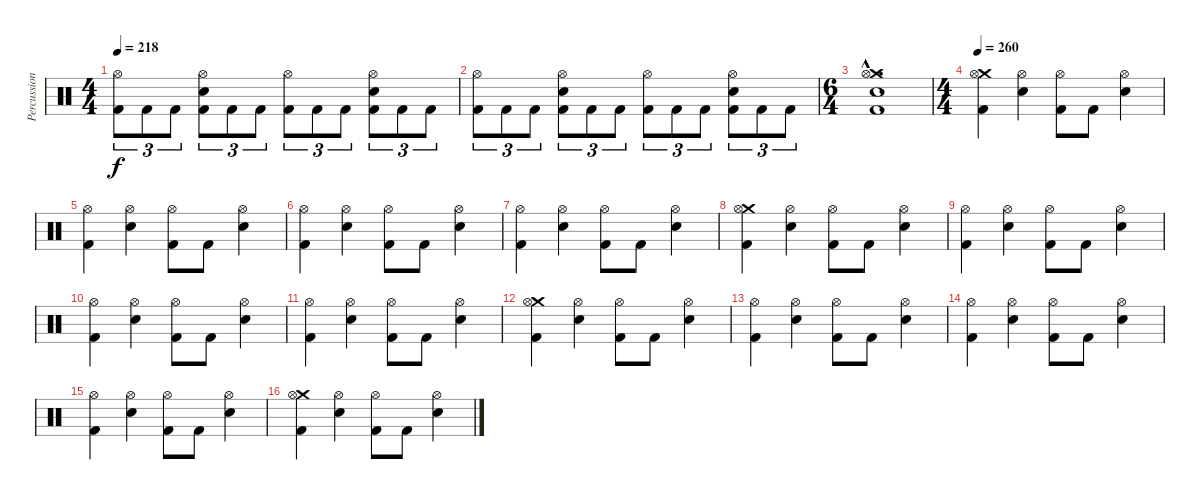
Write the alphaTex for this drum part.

\track ("Percussion" "Percussion") {instrument percussion}
\staff {score}
\articulation defaults
\ts (4 4)
\tempo 218
\clef neutral
\ks c
("Hi-Hat (open)" "Kick (hit) 2").8{tu (3 2) dy f} "Kick (hit) 2".8{tu (3 2)} "Kick (hit) 2".8{tu (3 2)} ("Hi-Hat (open)" "Electric Snare (hit)" "Kick (hit) 2").8{tu (3 2)} "Kick (hit) 2".8{tu (3 2)} "Kick (hit) 2".8{tu (3 2)} ("Hi-Hat (open)" "Kick (hit) 2").8{tu (3 2)} "Kick (hit) 2".8{tu (3 2)} "Kick (hit) 2".8{tu (3 2)} ("Hi-Hat (open)" "Electric Snare (hit)" "Kick (hit) 2").8{tu (3 2)} "Kick (hit) 2".8{tu (3 2)} "Kick (hit) 2".8{tu (3 2)} |
("Hi-Hat (open)" "Kick (hit) 2").8{tu (3 2)} "Kick (hit) 2".8{tu (3 2)} "Kick (hit) 2".8{tu (3 2)} ("Hi-Hat (open)" "Electric Snare (hit)" "Kick (hit) 2").8{tu (3 2)} "Kick (hit) 2".8{tu (3 2)} "Kick (hit) 2".8{tu (3 2)} ("Hi-Hat (open)" "Kick (hit) 2").8{tu (3 2)} "Kick (hit) 2".8{tu (3 2)} "Kick (hit) 2".8{tu (3 2)} ("Hi-Hat (open)" "Electric Snare (hit)" "Kick (hit) 2").8{tu (3 2)} "Kick (hit) 2".8{tu (3 2)} "Kick (hit) 2".8{tu (3 2)} |
\ts (6 4)
("Crash medium (hit)"{hac} "Hi-Hat (open)"{hac} "Electric Snare (hit)"{hac} "Kick (hit) 2"{hac}).1{d} |
\ts (4 4)
\tempo 260
("Crash medium (hit)" "Hi-Hat (open)" "Kick (hit) 2").4 ("Hi-Hat (open)" "Electric Snare (hit)").4 ("Hi-Hat (open)" "Kick (hit) 2").8 "Kick (hit) 2".8 ("Hi-Hat (open)" "Electric Snare (hit)").4 |
("Hi-Hat (open)" "Kick (hit) 2").4 ("Hi-Hat (open)" "Electric Snare (hit)").4 ("Hi-Hat (open)" "Kick (hit) 2").8 "Kick (hit) 2".8 ("Hi-Hat (open)" "Electric Snare (hit)").4 |
("Hi-Hat (open)" "Kick (hit) 2").4 ("Hi-Hat (open)" "Electric Snare (hit)").4 ("Hi-Hat (open)" "Kick (hit) 2").8 "Kick (hit) 2".8 ("Hi-Hat (open)" "Electric Snare (hit)").4 |
("Hi-Hat (open)" "Kick (hit) 2").4 ("Hi-Hat (open)" "Electric Snare (hit)").4 ("Hi-Hat (open)" "Kick (hit) 2").8 "Kick (hit) 2".8 ("Hi-Hat (open)" "Electric Snare (hit)").4 |
("Crash medium (hit)" "Hi-Hat (open)" "Kick (hit) 2").4 ("Hi-Hat (open)" "Electric Snare (hit)").4 ("Hi-Hat (open)" "Kick (hit) 2").8 "Kick (hit) 2".8 ("Hi-Hat (open)" "Electric Snare (hit)").4 |
("Hi-Hat (open)" "Kick (hit) 2").4 ("Hi-Hat (open)" "Electric Snare (hit)").4 ("Hi-Hat (open)" "Kick (hit) 2").8 "Kick (hit) 2".8 ("Hi-Hat (open)" "Electric Snare (hit)").4 |
("Hi-Hat (open)" "Kick (hit) 2").4 ("Hi-Hat (open)" "Electric Snare (hit)").4 ("Hi-Hat (open)" "Kick (hit) 2").8 "Kick (hit) 2".8 ("Hi-Hat (open)" "Electric Snare (hit)").4 |
("Hi-Hat (open)" "Kick (hit) 2").4 ("Hi-Hat (open)" "Electric Snare (hit)").4 ("Hi-Hat (open)" "Kick (hit) 2").8 "Kick (hit) 2".8 ("Hi-Hat (open)" "Electric Snare (hit)").4 |
("Crash medium (hit)" "Hi-Hat (open)" "Kick (hit) 2").4 ("Hi-Hat (open)" "Electric Snare (hit)").4 ("Hi-Hat (open)" "Kick (hit) 2").8 "Kick (hit) 2".8 ("Hi-Hat (open)" "Electric Snare (hit)").4 |
("Hi-Hat (open)" "Kick (hit) 2").4 ("Hi-Hat (open)" "Electric Snare (hit)").4 ("Hi-Hat (open)" "Kick (hit) 2").8 "Kick (hit) 2".8 ("Hi-Hat (open)" "Electric Snare (hit)").4 |
("Hi-Hat (open)" "Kick (hit) 2").4 ("Hi-Hat (open)" "Electric Snare (hit)").4 ("Hi-Hat (open)" "Kick (hit) 2").8 "Kick (hit) 2".8 ("Hi-Hat (open)" "Electric Snare (hit)").4 |
("Hi-Hat (open)" "Kick (hit) 2").4 ("Hi-Hat (open)" "Electric Snare (hit)").4 ("Hi-Hat (open)" "Kick (hit) 2").8 "Kick (hit) 2".8 ("Hi-Hat (open)" "Electric Snare (hit)").4 |
("Crash medium (hit)" "Hi-Hat (open)" "Kick (hit) 2").4 ("Hi-Hat (open)" "Electric Snare (hit)").4 ("Hi-Hat (open)" "Kick (hit) 2").8 "Kick (hit) 2".8 ("Hi-Hat (open)" "Electric Snare (hit)").4
